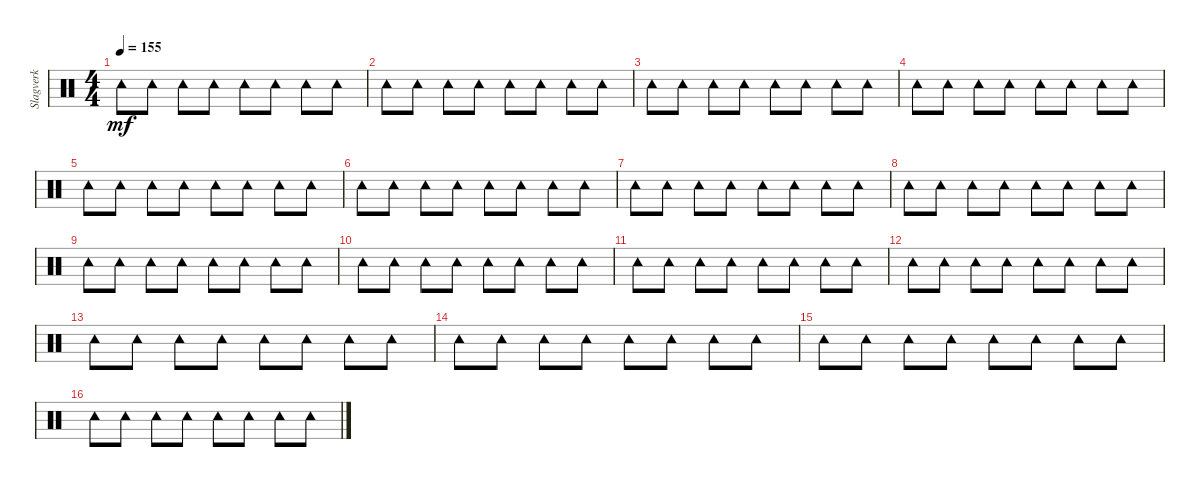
\track ("Slagverk" "Slagverk") {instrument percussion}
\staff {score}
\articulation defaults
\ts (4 4)
\tempo 155
\clef neutral
\ks c "Tambourine (hit)".8{dy mf} "Tambourine (hit)".8 "Tambourine (hit)".8 "Tambourine (hit)".8 "Tambourine (hit)".8 "Tambourine (hit)".8 "Tambourine (hit)".8 "Tambourine (hit)".8
|
"Tambourine (hit)".8 "Tambourine (hit)".8 "Tambourine (hit)".8 "Tambourine (hit)".8 "Tambourine (hit)".8 "Tambourine (hit)".8 "Tambourine (hit)".8 "Tambourine (hit)".8 |
"Tambourine (hit)".8 "Tambourine (hit)".8 "Tambourine (hit)".8 "Tambourine (hit)".8 "Tambourine (hit)".8 "Tambourine (hit)".8 "Tambourine (hit)".8 "Tambourine (hit)".8 |
"Tambourine (hit)".8 "Tambourine (hit)".8 "Tambourine (hit)".8 "Tambourine (hit)".8 "Tambourine (hit)".8 "Tambourine (hit)".8 "Tambourine (hit)".8 "Tambourine (hit)".8 |
"Tambourine (hit)".8 "Tambourine (hit)".8 "Tambourine (hit)".8 "Tambourine (hit)".8 "Tambourine (hit)".8 "Tambourine (hit)".8 "Tambourine (hit)".8 "Tambourine (hit)".8 |
"Tambourine (hit)".8 "Tambourine (hit)".8 "Tambourine (hit)".8 "Tambourine (hit)".8 "Tambourine (hit)".8 "Tambourine (hit)".8 "Tambourine (hit)".8 "Tambourine (hit)".8 |
"Tambourine (hit)".8 "Tambourine (hit)".8 "Tambourine (hit)".8 "Tambourine (hit)".8 "Tambourine (hit)".8 "Tambourine (hit)".8 "Tambourine (hit)".8 "Tambourine (hit)".8 |
"Tambourine (hit)".8 "Tambourine (hit)".8 "Tambourine (hit)".8 "Tambourine (hit)".8 "Tambourine (hit)".8 "Tambourine (hit)".8 "Tambourine (hit)".8 "Tambourine (hit)".8 |
"Tambourine (hit)".8 "Tambourine (hit)".8 "Tambourine (hit)".8 "Tambourine (hit)".8 "Tambourine (hit)".8 "Tambourine (hit)".8 "Tambourine (hit)".8 "Tambourine (hit)".8 |
"Tambourine (hit)".8 "Tambourine (hit)".8 "Tambourine (hit)".8 "Tambourine (hit)".8 "Tambourine (hit)".8 "Tambourine (hit)".8 "Tambourine (hit)".8 "Tambourine (hit)".8 |
"Tambourine (hit)".8 "Tambourine (hit)".8 "Tambourine (hit)".8 "Tambourine (hit)".8 "Tambourine (hit)".8 "Tambourine (hit)".8 "Tambourine (hit)".8 "Tambourine (hit)".8 |
"Tambourine (hit)".8 "Tambourine (hit)".8 "Tambourine (hit)".8 "Tambourine (hit)".8 "Tambourine (hit)".8 "Tambourine (hit)".8 "Tambourine (hit)".8 "Tambourine (hit)".8 |
"Tambourine (hit)".8 "Tambourine (hit)".8 "Tambourine (hit)".8 "Tambourine (hit)".8 "Tambourine (hit)".8 "Tambourine (hit)".8 "Tambourine (hit)".8 "Tambourine (hit)".8 |
"Tambourine (hit)".8 "Tambourine (hit)".8 "Tambourine (hit)".8 "Tambourine (hit)".8 "Tambourine (hit)".8 "Tambourine (hit)".8 "Tambourine (hit)".8 "Tambourine (hit)".8 |
"Tambourine (hit)".8 "Tambourine (hit)".8 "Tambourine (hit)".8 "Tambourine (hit)".8 "Tambourine (hit)".8 "Tambourine (hit)".8 "Tambourine (hit)".8 "Tambourine (hit)".8 |
"Tambourine (hit)".8 "Tambourine (hit)".8 "Tambourine (hit)".8 "Tambourine (hit)".8 "Tambourine (hit)".8 "Tambourine (hit)".8 "Tambourine (hit)".8 "Tambourine (hit)".8
